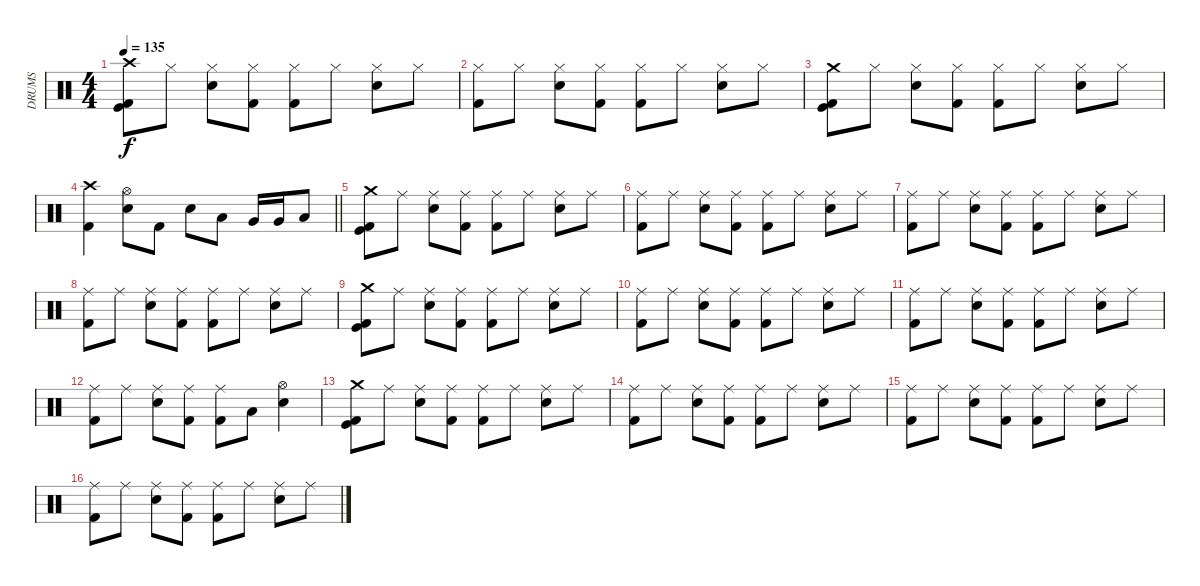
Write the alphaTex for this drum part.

\track ("DRUMS" "DRUMS") {instrument percussion}
\staff {score}
\articulation defaults
\ts (4 4)
\tempo 135
\clef neutral
\ks c
("Crash high (hit)" "Kick (hit) 2" "Kick (hit)").8{dy f} "Hi-Hat (closed)".8 ("Hi-Hat (closed)" "Electric Snare (hit)").8 ("Hi-Hat (closed)" "Kick (hit) 2").8 ("Hi-Hat (closed)" "Kick (hit) 2").8 "Hi-Hat (closed)".8 ("Hi-Hat (closed)" "Electric Snare (hit)").8 "Hi-Hat (closed)".8 |
("Hi-Hat (closed)" "Kick (hit) 2").8 "Hi-Hat (closed)".8 ("Hi-Hat (closed)" "Electric Snare (hit)").8 ("Hi-Hat (closed)" "Kick (hit) 2").8 ("Hi-Hat (closed)" "Kick (hit) 2").8 "Hi-Hat (closed)".8 ("Hi-Hat (closed)" "Electric Snare (hit)").8 "Hi-Hat (closed)".8 |
("Crash medium (hit)" "Kick (hit) 2" "Kick (hit)").8 "Hi-Hat (closed)".8 ("Hi-Hat (closed)" "Electric Snare (hit)").8 ("Hi-Hat (closed)" "Kick (hit) 2").8 ("Hi-Hat (closed)" "Kick (hit) 2").8 "Hi-Hat (closed)".8 ("Hi-Hat (closed)" "Electric Snare (hit)").8 "Hi-Hat (closed)".8 |
\barLineRight lightlight
("Crash high (hit)" "Kick (hit) 2").4 ("Hi-Hat (open)" "Electric Snare (hit)").8 "Kick (hit) 2".8 "Electric Snare (hit)".8 "Low Tom (hit)".8 "Very Low Tom (hit)".16 "Very Low Tom (hit)".16 "Low Floor Tom (hit)".8 |
("Crash medium (hit)" "Kick (hit) 2" "Kick (hit)").8 "Ride (middle)".8 ("Ride (middle)" "Electric Snare (hit)").8 ("Ride (middle)" "Kick (hit) 2").8 ("Ride (middle)" "Kick (hit) 2").8 "Ride (middle)".8 ("Ride (middle)" "Electric Snare (hit)").8 "Ride (middle)".8 |
("Ride (middle)" "Kick (hit) 2").8 "Ride (middle)".8 ("Ride (middle)" "Electric Snare (hit)").8 ("Ride (middle)" "Kick (hit) 2").8 ("Ride (middle)" "Kick (hit) 2").8 "Ride (middle)".8 ("Ride (middle)" "Electric Snare (hit)").8 "Ride (middle)".8 |
("Ride (middle)" "Kick (hit) 2").8 "Ride (middle)".8 ("Ride (middle)" "Electric Snare (hit)").8 ("Ride (middle)" "Kick (hit) 2").8 ("Ride (middle)" "Kick (hit) 2").8 "Ride (middle)".8 ("Ride (middle)" "Electric Snare (hit)").8 "Ride (middle)".8 |
("Ride (middle)" "Kick (hit) 2").8 "Ride (middle)".8 ("Ride (middle)" "Electric Snare (hit)").8 ("Ride (middle)" "Kick (hit) 2").8 ("Ride (middle)" "Kick (hit) 2").8 "Ride (middle)".8 ("Ride (middle)" "Electric Snare (hit)").8 "Ride (middle)".8 |
("Crash medium (hit)" "Kick (hit) 2" "Kick (hit)").8 "Ride (middle)".8 ("Ride (middle)" "Electric Snare (hit)").8 ("Ride (middle)" "Kick (hit) 2").8 ("Ride (middle)" "Kick (hit) 2").8 "Ride (middle)".8 ("Ride (middle)" "Electric Snare (hit)").8 "Ride (middle)".8 |
("Ride (middle)" "Kick (hit) 2").8 "Ride (middle)".8 ("Ride (middle)" "Electric Snare (hit)").8 ("Ride (middle)" "Kick (hit) 2").8 ("Ride (middle)" "Kick (hit) 2").8 "Ride (middle)".8 ("Ride (middle)" "Electric Snare (hit)").8 "Ride (middle)".8 |
("Ride (middle)" "Kick (hit) 2").8 "Ride (middle)".8 ("Ride (middle)" "Electric Snare (hit)").8 ("Ride (middle)" "Kick (hit) 2").8 ("Ride (middle)" "Kick (hit) 2").8 "Ride (middle)".8 ("Ride (middle)" "Electric Snare (hit)").8 "Ride (middle)".8 |
("Ride (middle)" "Kick (hit) 2").8 "Ride (middle)".8 ("Ride (middle)" "Electric Snare (hit)").8 ("Ride (middle)" "Kick (hit) 2").8 ("Ride (middle)" "Kick (hit) 2").8 "Low Tom (hit)".8 ("Hi-Hat (open)" "Electric Snare (hit)").4 |
("Crash medium (hit)" "Kick (hit) 2" "Kick (hit)").8 "Ride (middle)".8 ("Ride (middle)" "Electric Snare (hit)").8 ("Ride (middle)" "Kick (hit) 2").8 ("Ride (middle)" "Kick (hit) 2").8 "Ride (middle)".8 ("Ride (middle)" "Electric Snare (hit)").8 "Ride (middle)".8 |
("Ride (middle)" "Kick (hit) 2").8 "Ride (middle)".8 ("Ride (middle)" "Electric Snare (hit)").8 ("Ride (middle)" "Kick (hit) 2").8 ("Ride (middle)" "Kick (hit) 2").8 "Ride (middle)".8 ("Ride (middle)" "Electric Snare (hit)").8 "Ride (middle)".8 |
("Ride (middle)" "Kick (hit) 2").8 "Ride (middle)".8 ("Ride (middle)" "Electric Snare (hit)").8 ("Ride (middle)" "Kick (hit) 2").8 ("Ride (middle)" "Kick (hit) 2").8 "Ride (middle)".8 ("Ride (middle)" "Electric Snare (hit)").8 "Ride (middle)".8 |
("Ride (middle)" "Kick (hit) 2").8 "Ride (middle)".8 ("Ride (middle)" "Electric Snare (hit)").8 ("Ride (middle)" "Kick (hit) 2").8 ("Ride (middle)" "Kick (hit) 2").8 "Ride (middle)".8 ("Ride (middle)" "Electric Snare (hit)").8 "Ride (middle)".8
